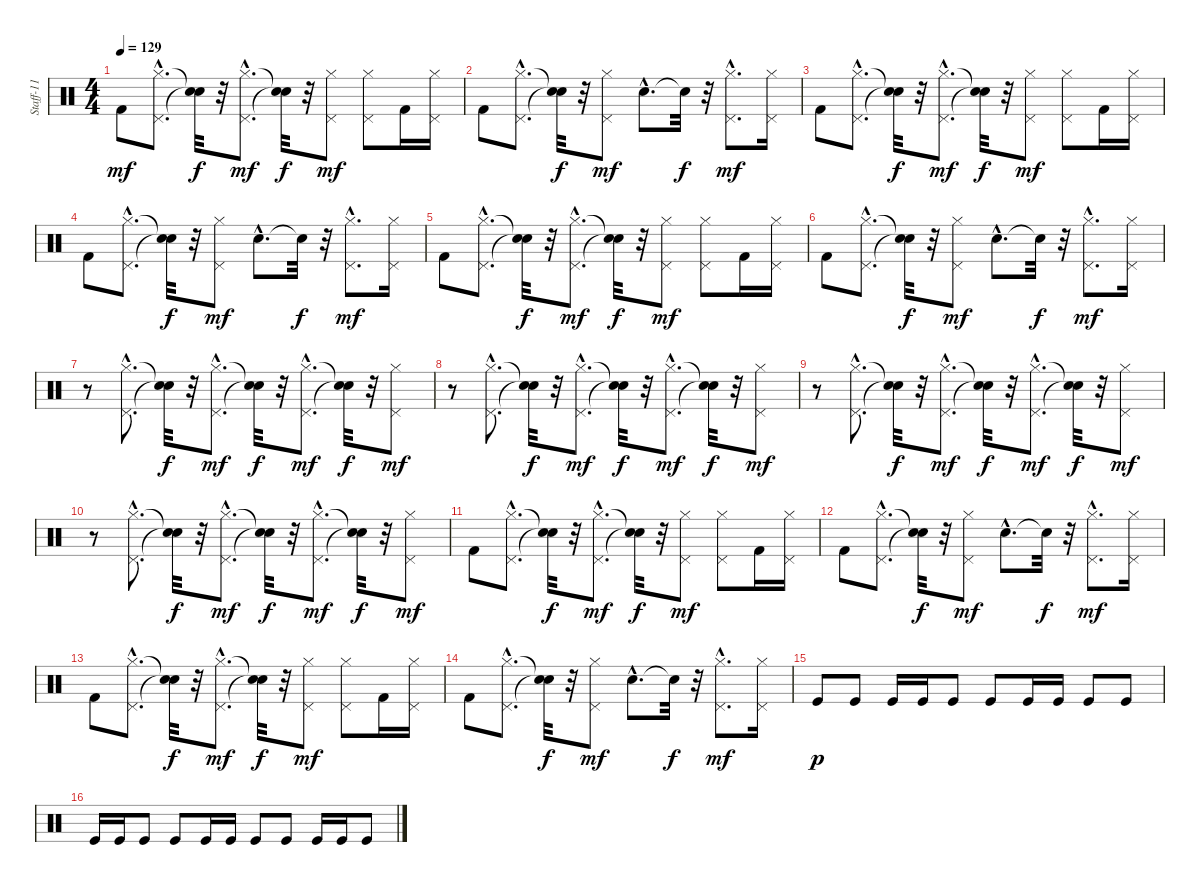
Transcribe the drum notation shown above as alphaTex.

\track ("Staff-11" "Staff-11") {instrument percussion}
\staff {score}
\articulation defaults
\ts (4 4)
\tempo 129
\clef neutral
\ks c "Kick (hit) 2".8{dy mf}
("Hi-Hat (closed)"{hac} "Pedal Hi-Hat (hit)"{hac}).8{d} ("Snare (hit)"{t} "Snare (hit)"{t}).32{dy f} r.32 ("Hi-Hat (closed)"{hac} "Pedal Hi-Hat (hit)"{hac}).8{d dy mf} ("Snare (hit)"{t} "Snare (hit)"{t}).32{dy f} r.32 ("Hi-Hat (closed)" "Pedal Hi-Hat (hit)").8{dy mf} ("Hi-Hat (closed)" "Pedal Hi-Hat (hit)").8 "Kick (hit) 2".16 ("Hi-Hat (closed)" "Pedal Hi-Hat (hit)").16 |
"Kick (hit) 2".8 ("Hi-Hat (closed)"{hac} "Pedal Hi-Hat (hit)"{hac}).8{d} ("Snare (hit)"{t} "Snare (hit)"{t}).32{dy f} r.32 ("Hi-Hat (closed)" "Pedal Hi-Hat (hit)").8{dy mf} "Hand Clap (hit)"{hac}.8{d} "Snare (hit)"{t}.32{dy f} r.32 ("Hi-Hat (closed)"{hac} "Pedal Hi-Hat (hit)"{hac}).8{d dy mf} ("Hi-Hat (closed)" "Pedal Hi-Hat (hit)").16 |
"Kick (hit) 2".8 ("Hi-Hat (closed)"{hac} "Pedal Hi-Hat (hit)"{hac}).8{d} ("Snare (hit)"{t} "Snare (hit)"{t}).32{dy f} r.32 ("Hi-Hat (closed)"{hac} "Pedal Hi-Hat (hit)"{hac}).8{d dy mf} ("Snare (hit)"{t} "Snare (hit)"{t}).32{dy f} r.32 ("Hi-Hat (closed)" "Pedal Hi-Hat (hit)").8{dy mf} ("Hi-Hat (closed)" "Pedal Hi-Hat (hit)").8 "Kick (hit) 2".16 ("Hi-Hat (closed)" "Pedal Hi-Hat (hit)").16 |
"Kick (hit) 2".8 ("Hi-Hat (closed)"{hac} "Pedal Hi-Hat (hit)"{hac}).8{d} ("Snare (hit)"{t} "Snare (hit)"{t}).32{dy f} r.32 ("Hi-Hat (closed)" "Pedal Hi-Hat (hit)").8{dy mf} "Hand Clap (hit)"{hac}.8{d} "Snare (hit)"{t}.32{dy f} r.32 ("Hi-Hat (closed)"{hac} "Pedal Hi-Hat (hit)"{hac}).8{d dy mf} ("Hi-Hat (closed)" "Pedal Hi-Hat (hit)").16 |
"Kick (hit) 2".8 ("Hi-Hat (closed)"{hac} "Pedal Hi-Hat (hit)"{hac}).8{d} ("Snare (hit)"{t} "Snare (hit)"{t}).32{dy f} r.32 ("Hi-Hat (closed)"{hac} "Pedal Hi-Hat (hit)"{hac}).8{d dy mf} ("Snare (hit)"{t} "Snare (hit)"{t}).32{dy f} r.32 ("Hi-Hat (closed)" "Pedal Hi-Hat (hit)").8{dy mf} ("Hi-Hat (closed)" "Pedal Hi-Hat (hit)").8 "Kick (hit) 2".16 ("Hi-Hat (closed)" "Pedal Hi-Hat (hit)").16 |
"Kick (hit) 2".8 ("Hi-Hat (closed)"{hac} "Pedal Hi-Hat (hit)"{hac}).8{d} ("Snare (hit)"{t} "Snare (hit)"{t}).32{dy f} r.32 ("Hi-Hat (closed)" "Pedal Hi-Hat (hit)").8{dy mf} "Hand Clap (hit)"{hac}.8{d} "Snare (hit)"{t}.32{dy f} r.32 ("Hi-Hat (closed)"{hac} "Pedal Hi-Hat (hit)"{hac}).8{d dy mf} ("Hi-Hat (closed)" "Pedal Hi-Hat (hit)").16 |
r.8 ("Hi-Hat (closed)"{hac} "Pedal Hi-Hat (hit)"{hac}).8{d} ("Snare (hit)"{t} "Snare (hit)"{t}).32{dy f} r.32 ("Hi-Hat (closed)"{hac} "Pedal Hi-Hat (hit)"{hac}).8{d dy mf} ("Snare (hit)"{t} "Snare (hit)"{t}).32{dy f} r.32 ("Hi-Hat (closed)"{hac} "Pedal Hi-Hat (hit)"{hac}).8{d dy mf} ("Snare (hit)"{t} "Snare (hit)"{t}).32{dy f} r.32 ("Hi-Hat (closed)" "Pedal Hi-Hat (hit)").8{dy mf} |
r.8 ("Hi-Hat (closed)"{hac} "Pedal Hi-Hat (hit)"{hac}).8{d} ("Snare (hit)"{t} "Snare (hit)"{t}).32{dy f} r.32 ("Hi-Hat (closed)"{hac} "Pedal Hi-Hat (hit)"{hac}).8{d dy mf} ("Snare (hit)"{t} "Snare (hit)"{t}).32{dy f} r.32 ("Hi-Hat (closed)"{hac} "Pedal Hi-Hat (hit)"{hac}).8{d dy mf} ("Snare (hit)"{t} "Snare (hit)"{t}).32{dy f} r.32 ("Hi-Hat (closed)" "Pedal Hi-Hat (hit)").8{dy mf} |
r.8 ("Hi-Hat (closed)"{hac} "Pedal Hi-Hat (hit)"{hac}).8{d} ("Snare (hit)"{t} "Snare (hit)"{t}).32{dy f} r.32 ("Hi-Hat (closed)"{hac} "Pedal Hi-Hat (hit)"{hac}).8{d dy mf} ("Snare (hit)"{t} "Snare (hit)"{t}).32{dy f} r.32 ("Hi-Hat (closed)"{hac} "Pedal Hi-Hat (hit)"{hac}).8{d dy mf} ("Snare (hit)"{t} "Snare (hit)"{t}).32{dy f} r.32 ("Hi-Hat (closed)" "Pedal Hi-Hat (hit)").8{dy mf} |
r.8 ("Hi-Hat (closed)"{hac} "Pedal Hi-Hat (hit)"{hac}).8{d} ("Snare (hit)"{t} "Snare (hit)"{t}).32{dy f} r.32 ("Hi-Hat (closed)"{hac} "Pedal Hi-Hat (hit)"{hac}).8{d dy mf} ("Snare (hit)"{t} "Snare (hit)"{t}).32{dy f} r.32 ("Hi-Hat (closed)"{hac} "Pedal Hi-Hat (hit)"{hac}).8{d dy mf} ("Snare (hit)"{t} "Snare (hit)"{t}).32{dy f} r.32 ("Hi-Hat (closed)" "Pedal Hi-Hat (hit)").8{dy mf} |
"Kick (hit) 2".8 ("Hi-Hat (closed)"{hac} "Pedal Hi-Hat (hit)"{hac}).8{d} ("Snare (hit)"{t} "Snare (hit)"{t}).32{dy f} r.32 ("Hi-Hat (closed)"{hac} "Pedal Hi-Hat (hit)"{hac}).8{d dy mf} ("Snare (hit)"{t} "Snare (hit)"{t}).32{dy f} r.32 ("Hi-Hat (closed)" "Pedal Hi-Hat (hit)").8{dy mf} ("Hi-Hat (closed)" "Pedal Hi-Hat (hit)").8 "Kick (hit) 2".16 ("Hi-Hat (closed)" "Pedal Hi-Hat (hit)").16 |
"Kick (hit) 2".8 ("Hi-Hat (closed)"{hac} "Pedal Hi-Hat (hit)"{hac}).8{d} ("Snare (hit)"{t} "Snare (hit)"{t}).32{dy f} r.32 ("Hi-Hat (closed)" "Pedal Hi-Hat (hit)").8{dy mf} "Hand Clap (hit)"{hac}.8{d} "Snare (hit)"{t}.32{dy f} r.32 ("Hi-Hat (closed)"{hac} "Pedal Hi-Hat (hit)"{hac}).8{d dy mf} ("Hi-Hat (closed)" "Pedal Hi-Hat (hit)").16 |
"Kick (hit) 2".8 ("Hi-Hat (closed)"{hac} "Pedal Hi-Hat (hit)"{hac}).8{d} ("Snare (hit)"{t} "Snare (hit)"{t}).32{dy f} r.32 ("Hi-Hat (closed)"{hac} "Pedal Hi-Hat (hit)"{hac}).8{d dy mf} ("Snare (hit)"{t} "Snare (hit)"{t}).32{dy f} r.32 ("Hi-Hat (closed)" "Pedal Hi-Hat (hit)").8{dy mf} ("Hi-Hat (closed)" "Pedal Hi-Hat (hit)").8 "Kick (hit) 2".16 ("Hi-Hat (closed)" "Pedal Hi-Hat (hit)").16 |
"Kick (hit) 2".8 ("Hi-Hat (closed)"{hac} "Pedal Hi-Hat (hit)"{hac}).8{d} ("Snare (hit)"{t} "Snare (hit)"{t}).32{dy f} r.32 ("Hi-Hat (closed)" "Pedal Hi-Hat (hit)").8{dy mf} "Hand Clap (hit)"{hac}.8{d} "Snare (hit)"{t}.32{dy f} r.32 ("Hi-Hat (closed)"{hac} "Pedal Hi-Hat (hit)"{hac}).8{d dy mf} ("Hi-Hat (closed)" "Pedal Hi-Hat (hit)").16 |
"Kick (hit)".8{dy p} "Kick (hit)".8 "Kick (hit)".16 "Kick (hit)".16 "Kick (hit)".8 "Kick (hit)".8 "Kick (hit)".16 "Kick (hit)".16 "Kick (hit)".8 "Kick (hit)".8 |
"Kick (hit)".16 "Kick (hit)".16 "Kick (hit)".8 "Kick (hit)".8 "Kick (hit)".16 "Kick (hit)".16 "Kick (hit)".8 "Kick (hit)".8 "Kick (hit)".16 "Kick (hit)".16 "Kick (hit)".8
